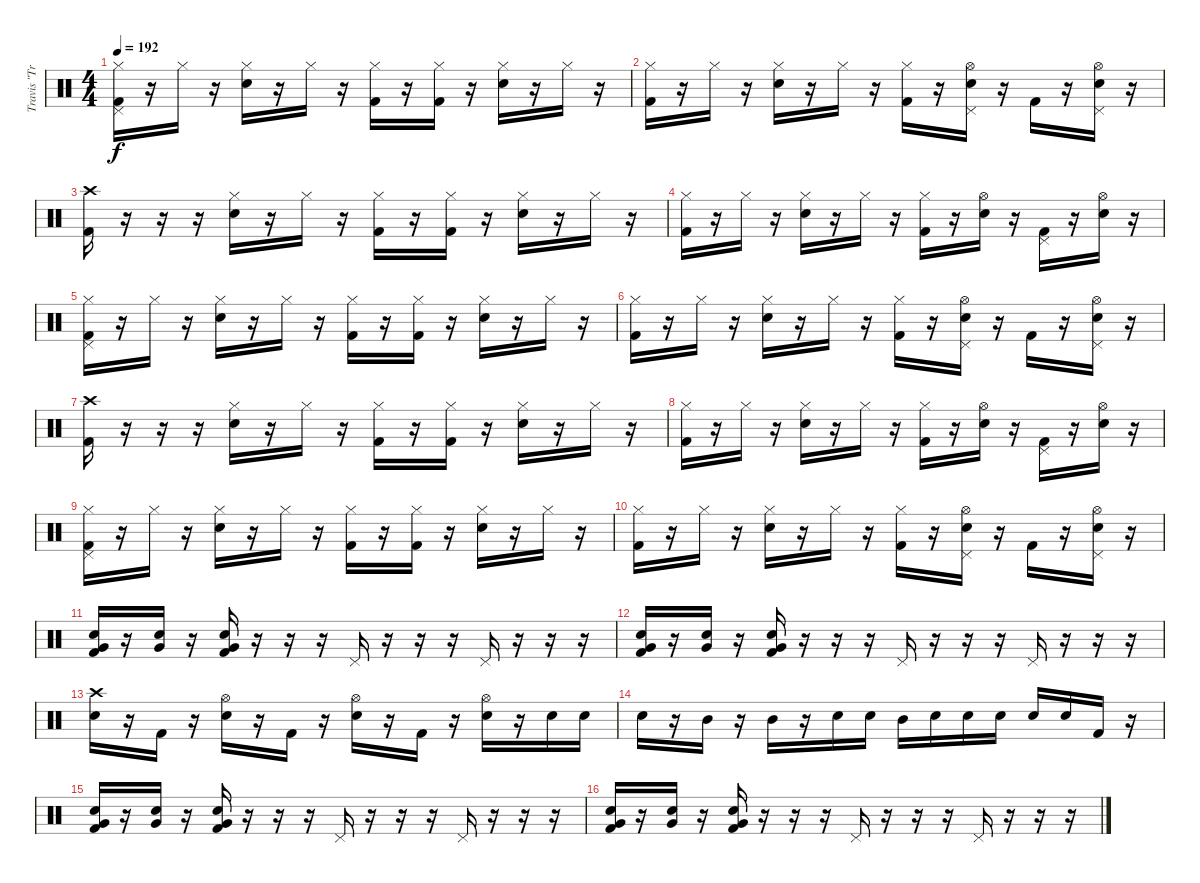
\track ("Travis \"Trevor\" Barker" "Travis \"Tr") {instrument percussion}
\staff {score}
\articulation defaults
\ts (4 4)
\tempo 192
\clef neutral
\ks c
("Hi-Hat (closed)" "Pedal Hi-Hat (hit)" "Kick (hit) 2").16{dy f} r.16 "Hi-Hat (closed)".16 r.16 ("Hi-Hat (closed)" "Snare (hit) 2").16 r.16 "Hi-Hat (closed)".16 r.16 ("Hi-Hat (closed)" "Kick (hit) 2").16 r.16 ("Hi-Hat (closed)" "Kick (hit) 2").16 r.16 ("Hi-Hat (closed)" "Snare (hit) 2").16 r.16 "Hi-Hat (closed)".16 r.16 |
("Hi-Hat (closed)" "Kick (hit) 2").16 r.16 "Hi-Hat (closed)".16 r.16 ("Hi-Hat (closed)" "Snare (hit) 2").16 r.16 "Hi-Hat (closed)".16 r.16 ("Hi-Hat (closed)" "Kick (hit) 2").16 r.16 ("Hi-Hat (open)" "Pedal Hi-Hat (hit)" "Snare (hit) 2").16 r.16 "Kick (hit) 2".16 r.16 ("Hi-Hat (open)" "Pedal Hi-Hat (hit)" "Snare (hit) 2").16 r.16 |
("Crash high (hit)" "Kick (hit) 2").16 r.16 r.16 r.16 ("Hi-Hat (closed)" "Snare (hit) 2").16 r.16 "Hi-Hat (closed)".16 r.16 ("Hi-Hat (closed)" "Kick (hit) 2").16 r.16 ("Hi-Hat (closed)" "Kick (hit) 2").16 r.16 ("Hi-Hat (closed)" "Snare (hit) 2").16 r.16 "Hi-Hat (closed)".16 r.16 |
("Hi-Hat (closed)" "Kick (hit) 2").16 r.16 "Hi-Hat (closed)".16 r.16 ("Hi-Hat (closed)" "Snare (hit) 2").16 r.16 "Hi-Hat (closed)".16 r.16 ("Hi-Hat (closed)" "Kick (hit) 2").16 r.16 ("Hi-Hat (open)" "Snare (hit) 2").16 r.16 ("Pedal Hi-Hat (hit)" "Kick (hit) 2").16 r.16 ("Hi-Hat (open)" "Snare (hit) 2").16 r.16 |
("Hi-Hat (closed)" "Pedal Hi-Hat (hit)" "Kick (hit) 2").16 r.16 "Hi-Hat (closed)".16 r.16 ("Hi-Hat (closed)" "Snare (hit) 2").16 r.16 "Hi-Hat (closed)".16 r.16 ("Hi-Hat (closed)" "Kick (hit) 2").16 r.16 ("Hi-Hat (closed)" "Kick (hit) 2").16 r.16 ("Hi-Hat (closed)" "Snare (hit) 2").16 r.16 "Hi-Hat (closed)".16 r.16 |
("Hi-Hat (closed)" "Kick (hit) 2").16 r.16 "Hi-Hat (closed)".16 r.16 ("Hi-Hat (closed)" "Snare (hit) 2").16 r.16 "Hi-Hat (closed)".16 r.16 ("Hi-Hat (closed)" "Kick (hit) 2").16 r.16 ("Hi-Hat (open)" "Pedal Hi-Hat (hit)" "Snare (hit) 2").16 r.16 "Kick (hit) 2".16 r.16 ("Hi-Hat (open)" "Pedal Hi-Hat (hit)" "Snare (hit) 2").16 r.16 |
("Crash high (hit)" "Kick (hit) 2").16 r.16 r.16 r.16 ("Hi-Hat (closed)" "Snare (hit) 2").16 r.16 "Hi-Hat (closed)".16 r.16 ("Hi-Hat (closed)" "Kick (hit) 2").16 r.16 ("Hi-Hat (closed)" "Kick (hit) 2").16 r.16 ("Hi-Hat (closed)" "Snare (hit) 2").16 r.16 "Hi-Hat (closed)".16 r.16 |
("Hi-Hat (closed)" "Kick (hit) 2").16 r.16 "Hi-Hat (closed)".16 r.16 ("Hi-Hat (closed)" "Snare (hit) 2").16 r.16 "Hi-Hat (closed)".16 r.16 ("Hi-Hat (closed)" "Kick (hit) 2").16 r.16 ("Hi-Hat (open)" "Snare (hit) 2").16 r.16 ("Pedal Hi-Hat (hit)" "Kick (hit) 2").16 r.16 ("Hi-Hat (open)" "Snare (hit) 2").16 r.16 |
("Hi-Hat (closed)" "Pedal Hi-Hat (hit)" "Kick (hit) 2").16 r.16 "Hi-Hat (closed)".16 r.16 ("Hi-Hat (closed)" "Snare (hit) 2").16 r.16 "Hi-Hat (closed)".16 r.16 ("Hi-Hat (closed)" "Kick (hit) 2").16 r.16 ("Hi-Hat (closed)" "Kick (hit) 2").16 r.16 ("Hi-Hat (closed)" "Snare (hit) 2").16 r.16 "Hi-Hat (closed)".16 r.16 |
("Hi-Hat (closed)" "Kick (hit) 2").16 r.16 "Hi-Hat (closed)".16 r.16 ("Hi-Hat (closed)" "Snare (hit) 2").16 r.16 "Hi-Hat (closed)".16 r.16 ("Hi-Hat (closed)" "Kick (hit) 2").16 r.16 ("Hi-Hat (open)" "Pedal Hi-Hat (hit)" "Snare (hit) 2").16 r.16 "Kick (hit) 2".16 r.16 ("Hi-Hat (open)" "Pedal Hi-Hat (hit)" "Snare (hit) 2").16 r.16 |
("Snare (hit) 2" "Very Low Tom (hit)" "Kick (hit) 2").16 r.16 ("Snare (hit) 2" "Very Low Tom (hit)").16 r.16 ("Snare (hit) 2" "Very Low Tom (hit)" "Kick (hit) 2").16 r.16 r.16 r.16 "Pedal Hi-Hat (hit)".16 r.16 r.16 r.16 "Pedal Hi-Hat (hit)".16 r.16 r.16 r.16 |
("Snare (hit) 2" "Very Low Tom (hit)" "Kick (hit) 2").16 r.16 ("Snare (hit) 2" "Very Low Tom (hit)").16 r.16 ("Snare (hit) 2" "Very Low Tom (hit)" "Kick (hit) 2").16 r.16 r.16 r.16 "Pedal Hi-Hat (hit)".16 r.16 r.16 r.16 "Pedal Hi-Hat (hit)".16 r.16 r.16 r.16 |
("Crash high (hit)" "Snare (hit) 2").16 r.16 "Kick (hit) 2".16 r.16 ("Hi-Hat (open)" "Snare (hit) 2").16 r.16 "Kick (hit) 2".16 r.16 ("Hi-Hat (open)" "Snare (hit) 2").16 r.16 "Kick (hit) 2".16 r.16 ("Hi-Hat (open)" "Snare (hit) 2").16 r.16 "Snare (hit) 2".16 "Snare (hit) 2".16 |
"Snare (hit) 2".16 r.16 "Mid Tom (hit)".16 r.16 "Mid Tom (hit)".16 r.16 "Snare (hit) 2".16 "Snare (hit) 2".16 "Mid Tom (hit)".16 "Snare (hit) 2".16 "Snare (hit) 2".16 "Snare (hit) 2".16 "Snare (hit) 2".16 "Snare (hit) 2".16 "Kick (hit) 2".16 r.16 |
("Snare (hit) 2" "Very Low Tom (hit)" "Kick (hit) 2").16 r.16 ("Snare (hit) 2" "Very Low Tom (hit)").16 r.16 ("Snare (hit) 2" "Very Low Tom (hit)" "Kick (hit) 2").16 r.16 r.16 r.16 "Pedal Hi-Hat (hit)".16 r.16 r.16 r.16 "Pedal Hi-Hat (hit)".16 r.16 r.16 r.16 |
("Snare (hit) 2" "Very Low Tom (hit)" "Kick (hit) 2").16 r.16 ("Snare (hit) 2" "Very Low Tom (hit)").16 r.16 ("Snare (hit) 2" "Very Low Tom (hit)" "Kick (hit) 2").16 r.16 r.16 r.16 "Pedal Hi-Hat (hit)".16 r.16 r.16 r.16 "Pedal Hi-Hat (hit)".16 r.16 r.16 r.16
